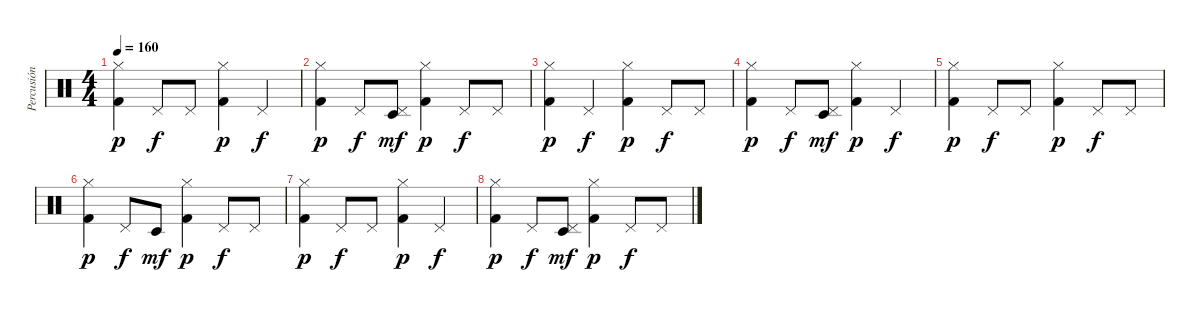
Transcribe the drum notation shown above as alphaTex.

\track ("Percusión" "Percusión") {instrument percussion}
\staff {score}
\articulation defaults
\ts (4 4)
\tempo 160
\clef neutral
\ks c
("Kick (hit) 2" "Hi-Hat (closed)").4{dy p} "Pedal Hi-Hat (hit)".8{dy f} "Pedal Hi-Hat (hit)".8 ("Kick (hit) 2" "Hi-Hat (closed)").4{dy p} "Pedal Hi-Hat (hit)".4{dy f} |
("Kick (hit) 2" "Hi-Hat (closed)").4{dy p} "Pedal Hi-Hat (hit)".8{dy f} ("Timbale low (hit)" "Pedal Hi-Hat (hit)").8{dy mf} ("Kick (hit) 2" "Hi-Hat (closed)").4{dy p} "Pedal Hi-Hat (hit)".8{dy f} "Pedal Hi-Hat (hit)".8 |
("Kick (hit) 2" "Hi-Hat (closed)").4{dy p} "Pedal Hi-Hat (hit)".4{dy f} ("Kick (hit) 2" "Hi-Hat (closed)").4{dy p} "Pedal Hi-Hat (hit)".8{dy f} "Pedal Hi-Hat (hit)".8 |
("Kick (hit) 2" "Hi-Hat (closed)").4{dy p} "Pedal Hi-Hat (hit)".8{dy f} ("Timbale low (hit)" "Pedal Hi-Hat (hit)").8{dy mf} ("Kick (hit) 2" "Hi-Hat (closed)").4{dy p} "Pedal Hi-Hat (hit)".4{dy f} |
("Kick (hit) 2" "Hi-Hat (closed)").4{dy p} "Pedal Hi-Hat (hit)".8{dy f} "Pedal Hi-Hat (hit)".8 ("Kick (hit) 2" "Hi-Hat (closed)").4{dy p} "Pedal Hi-Hat (hit)".8{dy f} "Pedal Hi-Hat (hit)".8 |
("Kick (hit) 2" "Hi-Hat (closed)").4{dy p} "Pedal Hi-Hat (hit)".8{dy f} "Timbale low (hit)".8{dy mf} ("Kick (hit) 2" "Hi-Hat (closed)").4{dy p} "Pedal Hi-Hat (hit)".8{dy f} "Pedal Hi-Hat (hit)".8 |
("Kick (hit) 2" "Hi-Hat (closed)").4{dy p} "Pedal Hi-Hat (hit)".8{dy f} "Pedal Hi-Hat (hit)".8 ("Kick (hit) 2" "Hi-Hat (closed)").4{dy p} "Pedal Hi-Hat (hit)".4{dy f} |
("Kick (hit) 2" "Hi-Hat (closed)").4{dy p} "Pedal Hi-Hat (hit)".8{dy f} ("Timbale low (hit)" "Pedal Hi-Hat (hit)").8{dy mf} ("Kick (hit) 2" "Hi-Hat (closed)").4{dy p} "Pedal Hi-Hat (hit)".8{dy f} "Pedal Hi-Hat (hit)".8
